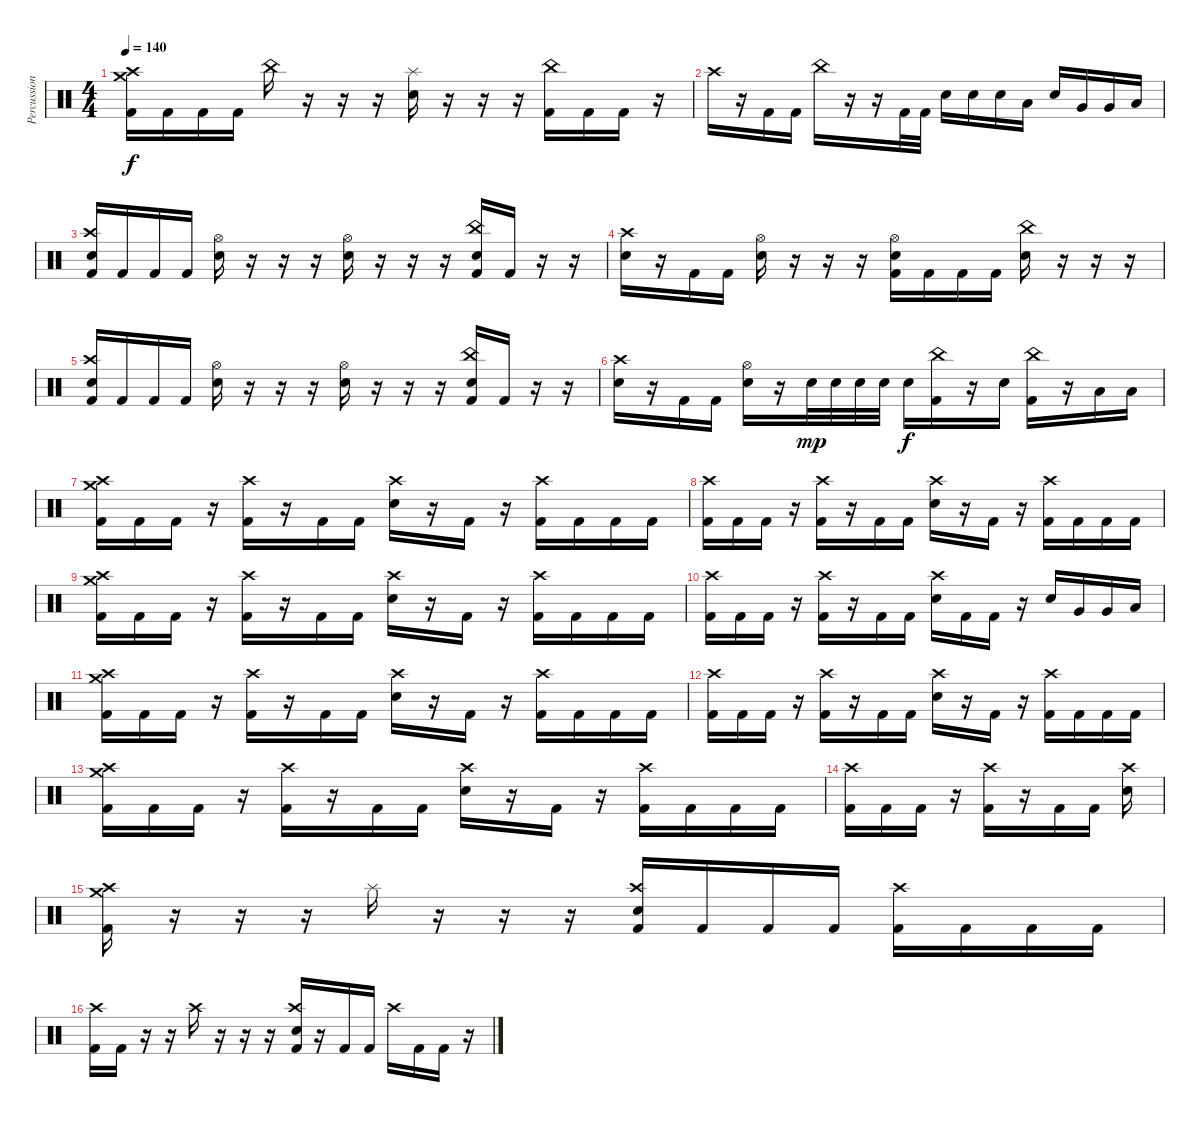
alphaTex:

\track ("Percussioni" "Percussion") {mute instrument percussion}
\staff {score}
\articulation defaults
\ts (4 4)
\tempo 140
\clef neutral
\ks c
("Kick (hit) 2" "Crash medium (hit)" "Crash high (hit)").16{dy f} "Kick (hit) 2".16 "Kick (hit) 2".16 "Kick (hit) 2".16 "China (hit)".16 r.16 r.16 r.16 ("Snare (hit) 2" "Splash (hit)").16 r.16 r.16 r.16 ("Kick (hit) 2" "China (hit)").16 "Kick (hit) 2".16 "Kick (hit) 2".16 r.16 |
"Crash high (hit)".16 r.16 "Kick (hit) 2".16 "Kick (hit) 2".16 "China (hit)".16 r.16 r.16 "Kick (hit) 2".32 "Kick (hit) 2".32 "Snare (hit) 2".16 "Snare (hit) 2".16 "Snare (hit) 2".16 "Low Tom (hit)".16 "Snare (hit) 2".16 "Very Low Tom (hit)".16 "Very Low Tom (hit)".16 "Low Floor Tom (hit)".16 |
("Crash high (hit)" "Kick (hit) 2" "Snare (hit) 2").16 "Kick (hit) 2".16 "Kick (hit) 2".16 "Kick (hit) 2".16 ("Hi-Hat (open)" "Snare (hit) 2").16 r.16 r.16 r.16 ("Snare (hit) 2" "Hi-Hat (open)").16 r.16 r.16 r.16 ("Kick (hit) 2" "Snare (hit) 2" "China (hit)").16 "Kick (hit) 2".16 r.16 r.16 |
("Crash high (hit)" "Snare (hit) 2").16 r.16 "Kick (hit) 2".16 "Kick (hit) 2".16 ("Hi-Hat (open)" "Snare (hit) 2").16 r.16 r.16 r.16 ("Kick (hit) 2" "Snare (hit) 2" "Hi-Hat (open)").16 "Kick (hit) 2".16 "Kick (hit) 2".16 "Kick (hit) 2".16 ("Snare (hit) 2" "China (hit)").16 r.16 r.16 r.16 |
("Crash high (hit)" "Kick (hit) 2" "Snare (hit) 2").16 "Kick (hit) 2".16 "Kick (hit) 2".16 "Kick (hit) 2".16 ("Hi-Hat (open)" "Snare (hit) 2").16 r.16 r.16 r.16 ("Snare (hit) 2" "Hi-Hat (open)").16 r.16 r.16 r.16 ("Kick (hit) 2" "Snare (hit) 2" "China (hit)").16 "Kick (hit) 2".16 r.16 r.16 |
("Crash high (hit)" "Snare (hit) 2").16 r.16 "Kick (hit) 2".16 "Kick (hit) 2".16 ("Hi-Hat (open)" "Snare (hit) 2").16 r.16 "Snare (hit) 2".32{dy mp} "Snare (hit) 2".32 "Snare (hit) 2".32 "Snare (hit) 2".32 "Snare (hit) 2".16{dy f} ("China (hit)" "Kick (hit) 2").16 r.16 "Snare (hit) 2".16 ("China (hit)" "Kick (hit) 2").16 r.16 "Low Tom (hit)".16 "Low Tom (hit)".16 |
("Crash high (hit)" "Crash medium (hit)" "Kick (hit) 2").16 "Kick (hit) 2".16 "Kick (hit) 2".16 r.16 ("Crash high (hit)" "Kick (hit) 2").16 r.16 "Kick (hit) 2".16 "Kick (hit) 2".16 ("Crash high (hit)" "Snare (hit) 2").16 r.16 "Kick (hit) 2".16 r.16 ("Crash high (hit)" "Kick (hit) 2").16 "Kick (hit) 2".16 "Kick (hit) 2".16 "Kick (hit) 2".16 |
("Crash high (hit)" "Kick (hit) 2").16 "Kick (hit) 2".16 "Kick (hit) 2".16 r.16 ("Crash high (hit)" "Kick (hit) 2").16 r.16 "Kick (hit) 2".16 "Kick (hit) 2".16 ("Crash high (hit)" "Snare (hit) 2").16 r.16 "Kick (hit) 2".16 r.16 ("Crash high (hit)" "Kick (hit) 2").16 "Kick (hit) 2".16 "Kick (hit) 2".16 "Kick (hit) 2".16 |
("Crash high (hit)" "Crash medium (hit)" "Kick (hit) 2").16 "Kick (hit) 2".16 "Kick (hit) 2".16 r.16 ("Crash high (hit)" "Kick (hit) 2").16 r.16 "Kick (hit) 2".16 "Kick (hit) 2".16 ("Crash high (hit)" "Snare (hit) 2").16 r.16 "Kick (hit) 2".16 r.16 ("Crash high (hit)" "Kick (hit) 2").16 "Kick (hit) 2".16 "Kick (hit) 2".16 "Kick (hit) 2".16 |
("Crash high (hit)" "Kick (hit) 2").16 "Kick (hit) 2".16 "Kick (hit) 2".16 r.16 ("Crash high (hit)" "Kick (hit) 2").16 r.16 "Kick (hit) 2".16 "Kick (hit) 2".16 ("Crash high (hit)" "Snare (hit) 2").16 "Kick (hit) 2".16 "Kick (hit) 2".16 r.16 "Snare (hit) 2".16 "Very Low Tom (hit)".16 "Very Low Tom (hit)".16 "Low Floor Tom (hit)".16 |
("Crash high (hit)" "Crash medium (hit)" "Kick (hit) 2").16 "Kick (hit) 2".16 "Kick (hit) 2".16 r.16 ("Crash high (hit)" "Kick (hit) 2").16 r.16 "Kick (hit) 2".16 "Kick (hit) 2".16 ("Crash high (hit)" "Snare (hit) 2").16 r.16 "Kick (hit) 2".16 r.16 ("Crash high (hit)" "Kick (hit) 2").16 "Kick (hit) 2".16 "Kick (hit) 2".16 "Kick (hit) 2".16 |
("Crash high (hit)" "Kick (hit) 2").16 "Kick (hit) 2".16 "Kick (hit) 2".16 r.16 ("Crash high (hit)" "Kick (hit) 2").16 r.16 "Kick (hit) 2".16 "Kick (hit) 2".16 ("Crash high (hit)" "Snare (hit) 2").16 r.16 "Kick (hit) 2".16 r.16 ("Crash high (hit)" "Kick (hit) 2").16 "Kick (hit) 2".16 "Kick (hit) 2".16 "Kick (hit) 2".16 |
("Crash high (hit)" "Crash medium (hit)" "Kick (hit) 2").16 "Kick (hit) 2".16 "Kick (hit) 2".16 r.16 ("Crash high (hit)" "Kick (hit) 2").16 r.16 "Kick (hit) 2".16 "Kick (hit) 2".16 ("Crash high (hit)" "Snare (hit) 2").16 r.16 "Kick (hit) 2".16 r.16 ("Crash high (hit)" "Kick (hit) 2").16 "Kick (hit) 2".16 "Kick (hit) 2".16 "Kick (hit) 2".16 |
("Crash high (hit)" "Kick (hit) 2").16 "Kick (hit) 2".16 "Kick (hit) 2".16 r.16 ("Crash high (hit)" "Kick (hit) 2").16 r.16 "Kick (hit) 2".16 "Kick (hit) 2".16 ("Crash high (hit)" "Snare (hit) 2").16 |
("Kick (hit) 2" "Crash high (hit)" "Crash medium (hit)").16 r.16 r.16 r.16 "Splash (hit)".16 r.16 r.16 r.16 ("Kick (hit) 2" "Snare (hit) 2" "Crash high (hit)").16 "Kick (hit) 2".16 "Kick (hit) 2".16 "Kick (hit) 2".16 ("Kick (hit) 2" "Crash high (hit)").16 "Kick (hit) 2".16 "Kick (hit) 2".16 "Kick (hit) 2".16 |
("Kick (hit) 2" "Crash high (hit)").16 "Kick (hit) 2".16 r.16 r.16 "Crash high (hit)".16 r.16 r.16 r.16 ("Kick (hit) 2" "Snare (hit) 2" "Crash high (hit)").16 r.16 "Kick (hit) 2".16 "Kick (hit) 2".16 "Crash high (hit)".16 "Kick (hit) 2".16 "Kick (hit) 2".16 r.16
